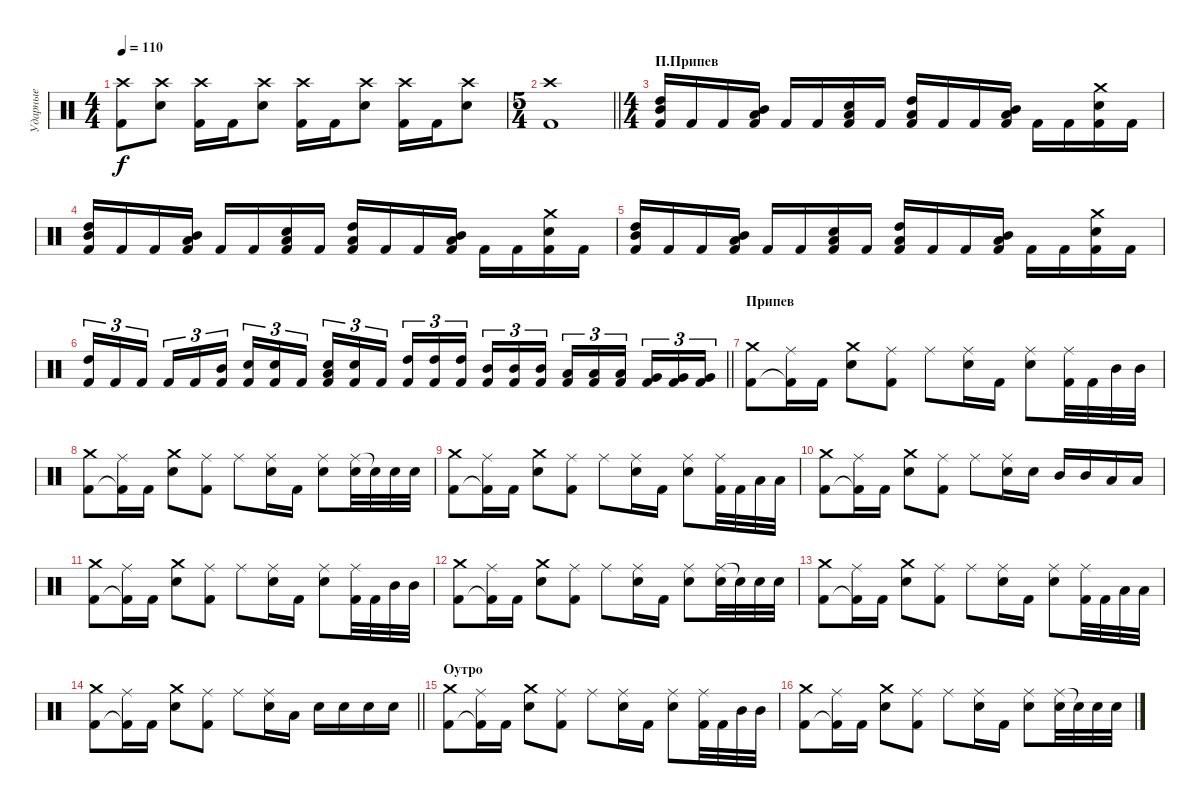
\track ("Ударные" "Ударные") {instrument percussion}
\staff {score}
\articulation defaults
\ts (4 4)
\tempo 110
\clef neutral
\ks c
("Crash high (hit)" "Kick (hit) 2").8{dy f} ("Crash high (hit)" "Snare (hit) 2").8 ("Crash high (hit)" "Kick (hit) 2").16 "Kick (hit) 2".16 ("Crash high (hit)" "Snare (hit) 2").8 ("Crash high (hit)" "Kick (hit) 2").16 "Kick (hit) 2".16 ("Crash high (hit)" "Snare (hit) 2").8 ("Crash high (hit)" "Kick (hit) 2").16 "Kick (hit) 2".16 ("Crash high (hit)" "Snare (hit) 2").8 |
\ts (5 4)
\barLineRight lightlight
("Crash high (hit)" "Kick (hit) 2").1 |
\ts (4 4)
\section ("" "П.Припев")
("Mid Tom (hit)" "High Tom (hit)" "Kick (hit) 2").16 "Kick (hit) 2".16 "Kick (hit) 2".16 ("Low Tom (hit)" "Mid Tom (hit)" "Kick (hit) 2").16 "Kick (hit) 2".16 "Kick (hit) 2".16 ("Low Tom (hit)" "Snare (hit) 2" "Kick (hit) 2").16 "Kick (hit) 2".16 ("Low Tom (hit)" "High Tom (hit)" "Kick (hit) 2").16 "Kick (hit) 2".16 "Kick (hit) 2".16 ("Mid Tom (hit)" "Low Tom (hit)" "Kick (hit) 2").16 "Kick (hit) 2".16 "Kick (hit) 2".16 ("Crash medium (hit)" "Snare (hit) 2" "Kick (hit) 2").16 "Kick (hit) 2".16 |
("Mid Tom (hit)" "High Tom (hit)" "Kick (hit) 2").16 "Kick (hit) 2".16 "Kick (hit) 2".16 ("Low Tom (hit)" "Mid Tom (hit)" "Kick (hit) 2").16 "Kick (hit) 2".16 "Kick (hit) 2".16 ("Low Tom (hit)" "Snare (hit) 2" "Kick (hit) 2").16 "Kick (hit) 2".16 ("Low Tom (hit)" "High Tom (hit)" "Kick (hit) 2").16 "Kick (hit) 2".16 "Kick (hit) 2".16 ("Mid Tom (hit)" "Low Tom (hit)" "Kick (hit) 2").16 "Kick (hit) 2".16 "Kick (hit) 2".16 ("Crash medium (hit)" "Snare (hit) 2" "Kick (hit) 2").16 "Kick (hit) 2".16 |
("Mid Tom (hit)" "High Tom (hit)" "Kick (hit) 2").16 "Kick (hit) 2".16 "Kick (hit) 2".16 ("Low Tom (hit)" "Mid Tom (hit)" "Kick (hit) 2").16 "Kick (hit) 2".16 "Kick (hit) 2".16 ("Low Tom (hit)" "Snare (hit) 2" "Kick (hit) 2").16 "Kick (hit) 2".16 ("Low Tom (hit)" "High Tom (hit)" "Kick (hit) 2").16 "Kick (hit) 2".16 "Kick (hit) 2".16 ("Mid Tom (hit)" "Low Tom (hit)" "Kick (hit) 2").16 "Kick (hit) 2".16 "Kick (hit) 2".16 ("Crash medium (hit)" "Snare (hit) 2" "Kick (hit) 2").16 "Kick (hit) 2".16 |
\barLineRight lightlight
("High Tom (hit)" "Kick (hit) 2").16{tu (3 2)} "Kick (hit) 2".16{tu (3 2)} "Kick (hit) 2".16{tu (3 2) beam splitsecondary} "Kick (hit) 2".16{tu (3 2)} "Kick (hit) 2".16{tu (3 2)} ("Mid Tom (hit)" "Kick (hit) 2").16{tu (3 2)} ("Snare (hit) 2" "Kick (hit) 2").16{tu (3 2)} ("Snare (hit) 2" "Kick (hit) 2").16{tu (3 2)} "Kick (hit) 2".16{tu (3 2) beam splitsecondary} ("Low Tom (hit)" "Snare (hit) 2" "Kick (hit) 2").16{tu (3 2)} ("Snare (hit) 2" "Kick (hit) 2").16{tu (3 2)} "Kick (hit) 2".16{tu (3 2)} ("High Tom (hit)" "Kick (hit) 2").16{tu (3 2)} ("High Tom (hit)" "Kick (hit) 2").16{tu (3 2)} ("High Tom (hit)" "Kick (hit) 2").16{tu (3 2) beam splitsecondary} ("Mid Tom (hit)" "Kick (hit) 2").16{tu (3 2)} ("Mid Tom (hit)" "Kick (hit) 2").16{tu (3 2)} ("Mid Tom (hit)" "Kick (hit) 2").16{tu (3 2)} ("Low Tom (hit)" "Kick (hit) 2").16{tu (3 2)} ("Low Tom (hit)" "Kick (hit) 2").16{tu (3 2)} ("Low Tom (hit)" "Kick (hit) 2").16{tu (3 2) beam splitsecondary} ("Very Low Tom (hit)" "Kick (hit) 2").16{tu (3 2)} ("Very Low Tom (hit)" "Kick (hit) 2").16{tu (3 2)} ("Very Low Tom (hit)" "Kick (hit) 2").16{tu (3 2)} |
\section ("" "Припев")
("Crash medium (hit)" "Kick (hit) 2").8 ("Ride (middle)" "Kick (hit) 2"{t}).16 "Kick (hit) 2".16 ("Crash medium (hit)" "Snare (hit) 2").8 ("Ride (middle)" "Kick (hit) 2").8 "Ride (middle)".8 ("Ride (middle)" "Snare (hit) 2").16 "Kick (hit) 2".16 ("Ride (middle)" "Snare (hit) 2").8 ("Ride (middle)" "Kick (hit) 2").32 "Kick (hit) 2".32 "Mid Tom (hit)".32 "Mid Tom (hit)".32 |
("Crash medium (hit)" "Kick (hit) 2").8 ("Ride (middle)" "Kick (hit) 2"{t}).16 "Kick (hit) 2".16 ("Crash medium (hit)" "Snare (hit) 2").8 ("Ride (middle)" "Kick (hit) 2").8 "Ride (middle)".8 ("Ride (middle)" "Snare (hit) 2").16 "Kick (hit) 2".16 ("Ride (middle)" "Snare (hit) 2").8 ("Ride (middle)" "Snare (hit) 2").32 "Snare (hit) 2"{t}.32 "Snare (hit) 2".32 "Snare (hit) 2".32 |
("Crash medium (hit)" "Kick (hit) 2").8 ("Ride (middle)" "Kick (hit) 2"{t}).16 "Kick (hit) 2".16 ("Crash medium (hit)" "Snare (hit) 2").8 ("Ride (middle)" "Kick (hit) 2").8 "Ride (middle)".8 ("Ride (middle)" "Snare (hit) 2").16 "Kick (hit) 2".16 ("Ride (middle)" "Snare (hit) 2").8 ("Ride (middle)" "Kick (hit) 2").32 "Kick (hit) 2".32 "Low Tom (hit)".32 "Low Tom (hit)".32 |
("Crash medium (hit)" "Kick (hit) 2").8 ("Ride (middle)" "Kick (hit) 2"{t}).16 "Kick (hit) 2".16 ("Crash medium (hit)" "Snare (hit) 2").8 ("Ride (middle)" "Kick (hit) 2").8 "Ride (middle)".8 ("Ride (middle)" "Snare (hit) 2").16 "Snare (hit) 2".16 "Mid Tom (hit)".16 "Mid Tom (hit)".16 "Low Tom (hit)".16 "Low Tom (hit)".16 |
("Crash medium (hit)" "Kick (hit) 2").8 ("Ride (middle)" "Kick (hit) 2"{t}).16 "Kick (hit) 2".16 ("Crash medium (hit)" "Snare (hit) 2").8 ("Ride (middle)" "Kick (hit) 2").8 "Ride (middle)".8 ("Ride (middle)" "Snare (hit) 2").16 "Kick (hit) 2".16 ("Ride (middle)" "Snare (hit) 2").8 ("Ride (middle)" "Kick (hit) 2").32 "Kick (hit) 2".32 "Mid Tom (hit)".32 "Mid Tom (hit)".32 |
("Crash medium (hit)" "Kick (hit) 2").8 ("Ride (middle)" "Kick (hit) 2"{t}).16 "Kick (hit) 2".16 ("Crash medium (hit)" "Snare (hit) 2").8 ("Ride (middle)" "Kick (hit) 2").8 "Ride (middle)".8 ("Ride (middle)" "Snare (hit) 2").16 "Kick (hit) 2".16 ("Ride (middle)" "Snare (hit) 2").8 ("Ride (middle)" "Snare (hit) 2").32 "Snare (hit) 2"{t}.32 "Snare (hit) 2".32 "Snare (hit) 2".32 |
("Crash medium (hit)" "Kick (hit) 2").8 ("Ride (middle)" "Kick (hit) 2"{t}).16 "Kick (hit) 2".16 ("Crash medium (hit)" "Snare (hit) 2").8 ("Ride (middle)" "Kick (hit) 2").8 "Ride (middle)".8 ("Ride (middle)" "Snare (hit) 2").16 "Kick (hit) 2".16 ("Ride (middle)" "Snare (hit) 2").8 ("Ride (middle)" "Kick (hit) 2").32 "Kick (hit) 2".32 "Low Tom (hit)".32 "Low Tom (hit)".32 |
\barLineRight lightlight
("Crash medium (hit)" "Kick (hit) 2").8 ("Ride (middle)" "Kick (hit) 2"{t}).16 "Kick (hit) 2".16 ("Crash medium (hit)" "Snare (hit) 2").8 ("Ride (middle)" "Kick (hit) 2").8 "Ride (middle)".8 ("Ride (middle)" "Snare (hit) 2").16 "Low Tom (hit)".16 "Snare (hit) 2".16 "Snare (hit) 2".16 "Snare (hit) 2".16 "Snare (hit) 2".16 |
\section ("" "Оутро")
("Crash medium (hit)" "Kick (hit) 2").8 ("Ride (middle)" "Kick (hit) 2"{t}).16 "Kick (hit) 2".16 ("Crash medium (hit)" "Snare (hit) 2").8 ("Ride (middle)" "Kick (hit) 2").8 "Ride (middle)".8 ("Ride (middle)" "Snare (hit) 2").16 "Kick (hit) 2".16 ("Ride (middle)" "Snare (hit) 2").8 ("Ride (middle)" "Kick (hit) 2").32 "Kick (hit) 2".32 "Mid Tom (hit)".32 "Mid Tom (hit)".32 |
("Crash medium (hit)" "Kick (hit) 2").8 ("Ride (middle)" "Kick (hit) 2"{t}).16 "Kick (hit) 2".16 ("Crash medium (hit)" "Snare (hit) 2").8 ("Ride (middle)" "Kick (hit) 2").8 "Ride (middle)".8 ("Ride (middle)" "Snare (hit) 2").16 "Kick (hit) 2".16 ("Ride (middle)" "Snare (hit) 2").8 ("Ride (middle)" "Snare (hit) 2").32 "Snare (hit) 2"{t}.32 "Snare (hit) 2".32 "Snare (hit) 2".32
